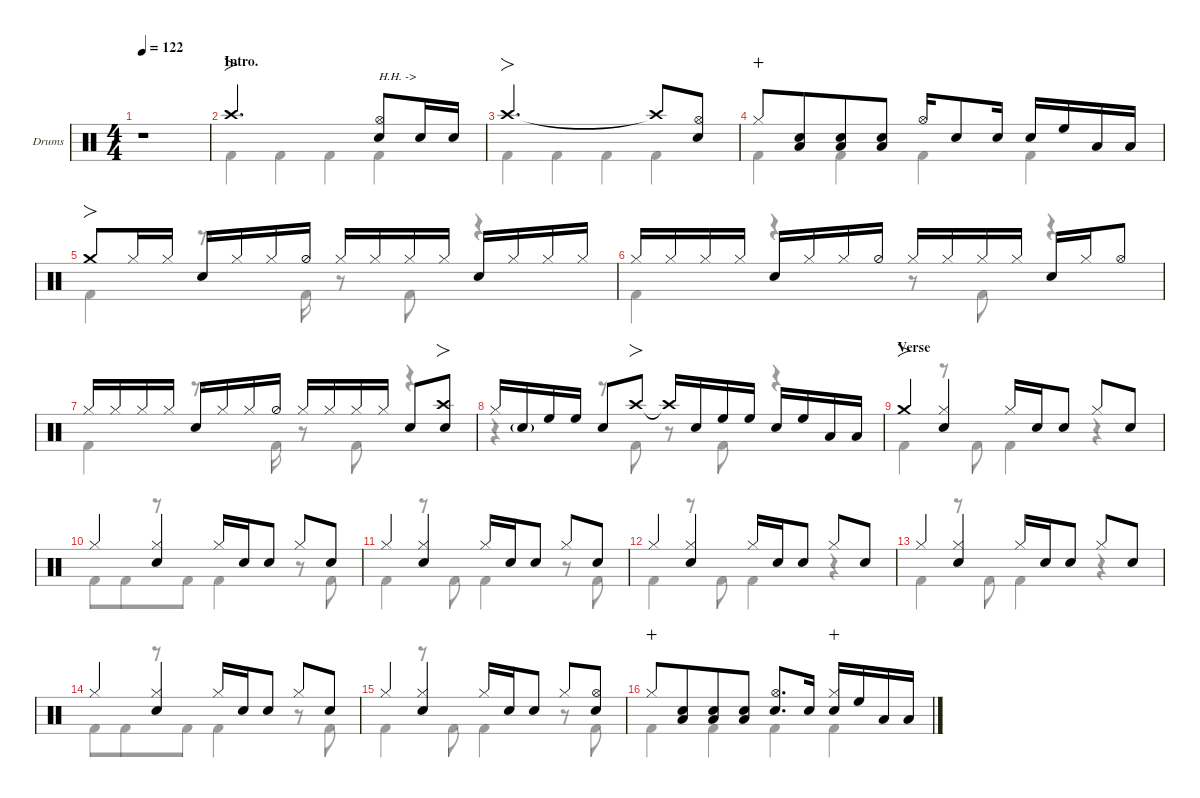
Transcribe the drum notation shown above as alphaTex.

\defaultSystemsLayout 4
\hideDynamics
\bracketExtendMode nobrackets
\firstSystemTrackNameOrientation horizontal
\track ("Drums" "Drums") {defaultSystemsLayout 4 instrument percussion}
\staff {score}
\articulation defaults
\voice
\ts (4 4)
\beaming (8 4 4)
\tempo 122
\clef neutral
\ks c
r.1{dy f beam Up} |
\section ("" "Intro.")
\scale
0.348105 "Crash high (hit)".2{fo d beam Up} ("Hi-Hat (open)" "Snare (hit) 2").8{txt "H.H. ->" beam Up} "Snare (hit) 2".16{beam Up} "Snare (hit) 2".16{dy mf beam Up} |
\scale
0.325947 "Crash high (hit)".2{fo d dy f beam Up} "Crash high (hit)"{t}.8{beam Up} ("Snare (hit) 2" "Hi-Hat (open)").8{beam Up} |
\scale
0.325947 "Hi-Hat (closed)".8{dy mp wahc beam Up} ("Snare (hit) 2" "Low Tom (hit)").8{dy f beam Up} ("Low Tom (hit)" "Snare (hit) 2").8{beam Up} ("Snare (hit) 2" "Low Tom (hit)").8{beam Up} "Hi-Hat (open)".16{beam Up} "Snare (hit) 2".8{beam Up} "Snare (hit) 2".16{dy mf beam Up beam split} "Snare (hit) 2".16{dy f beam Up} "High Floor Tom (hit)".16{beam Up} "Low Tom (hit)".16{beam Up} "Low Tom (hit)".16{beam Up} |
\scale
0.266618 "Crash medium (hit)".8{fo beam Up} "Hi-Hat (closed)".16{beam Up} "Hi-Hat (closed)".16{dy mf beam Up beam split} "Snare (hit) 2".16{dy f beam Up} "Hi-Hat (closed)".16{dy mf beam Up} "Hi-Hat (closed)".16{dy f beam Up} "Hi-Hat (half)".16{beam Up} "Hi-Hat (closed)".16{beam Up} "Hi-Hat (closed)".16{dy mf beam Up} "Hi-Hat (closed)".16{dy f beam Up} "Hi-Hat (closed)".16{dy mf beam Up beam split} "Snare (hit) 2".16{dy f beam Up} "Hi-Hat (closed)".16{dy mf beam Up} "Hi-Hat (closed)".16{dy f beam Up} "Hi-Hat (closed)".16{dy mf beam Up} |
\scale
0.24446 "Hi-Hat (closed)".16{dy f beam Up} "Hi-Hat (closed)".16{dy mf beam Up} "Hi-Hat (closed)".16{dy f beam Up} "Hi-Hat (closed)".16{dy mf beam Up beam split} "Snare (hit) 2".16{dy f beam Up} "Hi-Hat (closed)".16{dy mf beam Up} "Hi-Hat (closed)".16{dy f beam Up} "Hi-Hat (half)".16{beam Up} "Hi-Hat (closed)".16{beam Up} "Hi-Hat (closed)".16{dy mf beam Up} "Hi-Hat (closed)".16{dy f beam Up} "Hi-Hat (closed)".16{dy mf beam Up beam split} "Snare (hit) 2".16{dy f beam Up} "Hi-Hat (closed)".16{dy mf beam Up} "Hi-Hat (open)".8{dy f beam Up} |
\scale
0.24446 "Hi-Hat (closed)".16{dy mf beam Up} "Hi-Hat (closed)".16{beam Up} "Hi-Hat (closed)".16{dy f beam Up} "Hi-Hat (closed)".16{dy mf beam Up beam split} "Snare (hit) 2".16{dy f beam Up} "Hi-Hat (closed)".16{dy mf beam Up} "Hi-Hat (closed)".16{dy f beam Up} "Hi-Hat (half)".16{beam Up} "Hi-Hat (closed)".16{beam Up} "Hi-Hat (closed)".16{dy mf beam Up} "Hi-Hat (closed)".16{dy f beam Up} "Hi-Hat (closed)".16{dy mf beam Up beam split} "Snare (hit) 2".8{dy f beam Up} ("Snare (hit) 2" "Crash high (hit)").8{fo beam Up} |
\scale
0.244461 "Hi-Hat (closed)".16{beam Up} "Snare (hit) 2"{g}.16{dy mf beam Up} "High Floor Tom (hit)".16{dy f beam Up} "High Floor Tom (hit)".16{beam Up beam split} "Snare (hit) 2".8{beam Up} "Crash high (hit)".8{fo beam Up} "Crash high (hit)"{t}.16{beam Up} "Snare (hit) 2".16{beam Up} "High Floor Tom (hit)".16{beam Up} "High Floor Tom (hit)".16{beam Up beam split} "Snare (hit) 2".16{beam Up} "High Floor Tom (hit)".16{beam Up} "Low Tom (hit)".16{beam Up} "Low Tom (hit)".16{beam Up} |
\section ("" "Verse")
\scale
0.266618 "Crash medium (hit)".4{fo beam Up} ("Hi-Hat (closed)" "Snare (hit) 2").4{beam Up} "Hi-Hat (closed)".16{beam Up} "Snare (hit) 2".16{dy mf beam Up} "Snare (hit) 2".8{dy f beam Up beam split} "Hi-Hat (closed)".8{beam Up} "Snare (hit) 2".8{beam Up} |
\scale
0.24446 "Hi-Hat (closed)".4{beam Up} ("Snare (hit) 2" "Hi-Hat (closed)").4{beam Up} "Hi-Hat (closed)".16{beam Up} "Snare (hit) 2".16{dy mf beam Up} "Snare (hit) 2".8{dy f beam Up beam split} "Hi-Hat (closed)".8{beam Up} "Snare (hit) 2".8{beam Up} |
\scale
0.24446 "Hi-Hat (closed)".4{beam Up} ("Snare (hit) 2" "Hi-Hat (closed)").4{beam Up} "Hi-Hat (closed)".16{beam Up} "Snare (hit) 2".16{dy mf beam Up} "Snare (hit) 2".8{dy f beam Up beam split} "Hi-Hat (closed)".8{beam Up} "Snare (hit) 2".8{beam Up} |
\scale
0.244461 "Hi-Hat (closed)".4{beam Up} ("Snare (hit) 2" "Hi-Hat (closed)").4{beam Up} "Hi-Hat (closed)".16{beam Up} "Snare (hit) 2".16{dy mf beam Up} "Snare (hit) 2".8{dy f beam Up beam split} "Hi-Hat (closed)".8{beam Up} "Snare (hit) 2".8{beam Up} |
\scale
0.266618 "Hi-Hat (closed)".4{beam Up} ("Snare (hit) 2" "Hi-Hat (closed)").4{beam Up} "Hi-Hat (closed)".16{beam Up} "Snare (hit) 2".16{dy mf beam Up} "Snare (hit) 2".8{dy f beam Up beam split} "Hi-Hat (closed)".8{beam Up} "Snare (hit) 2".8{beam Up} |
\scale
0.244461 "Hi-Hat (closed)".4{beam Up} ("Snare (hit) 2" "Hi-Hat (closed)").4{beam Up} "Hi-Hat (closed)".16{beam Up} "Snare (hit) 2".16{dy mf beam Up} "Snare (hit) 2".8{dy f beam Up beam split} "Hi-Hat (closed)".8{beam Up} "Snare (hit) 2".8{beam Up} |
\scale
0.24446 "Hi-Hat (closed)".4{beam Up} ("Snare (hit) 2" "Hi-Hat (closed)").4{beam Up} "Hi-Hat (closed)".16{beam Up} "Snare (hit) 2".16{dy mf beam Up} "Snare (hit) 2".8{dy f beam Up beam split} "Hi-Hat (closed)".8{beam Up} ("Snare (hit) 2" "Hi-Hat (open)").8{beam Up} |
\scale
0.244461 "Hi-Hat (closed)".8{dy mp wahc beam Up} ("Snare (hit) 2" "Low Tom (hit)").8{dy f beam Up} ("Snare (hit) 2" "Low Tom (hit)").8{beam Up} ("Snare (hit) 2" "Low Tom (hit)").8{beam Up} ("Snare (hit) 2" "Hi-Hat (open)").8{d beam Up} "Snare (hit) 2".16{beam Up beam split} ("Snare (hit) 2" "Hi-Hat (closed)").16{wahc beam Up} "High Floor Tom (hit)".16{beam Up} "Low Tom (hit)".16{beam Up} "Low Tom (hit)".16{beam Up}
\voice
\clef neutral
\ottava regular
\simile none
\ks c
r.1{dy f beam Down} |
\scale
0.348105 "Kick (hit) 2".4{beam Down} "Kick (hit) 2".4{beam Down} "Kick (hit) 2".4{beam Down} "Kick (hit) 2".4{txt "H.H. ->" beam Down} |
\scale
0.325947 "Kick (hit) 2".4{beam Down} "Kick (hit) 2".4{beam Down} "Kick (hit) 2".4{beam Down} "Kick (hit) 2".4{beam Down} |
\scale
0.325947 "Kick (hit) 2".4{beam Down} "Kick (hit) 2".4{beam Down} "Kick (hit) 2".4{beam Down} "Kick (hit) 2".4{beam Down} |
\scale
0.266618 "Kick (hit) 2".4{beam Down} r.8{d beam Down} "Kick (hit) 2".16{beam Down} r.8{beam Down} "Kick (hit) 2".8{beam Down} r.4{beam Down} |
\scale
0.24446 "Kick (hit) 2".4{beam Down} r.4{beam Down} r.8{beam Down} "Kick (hit) 2".8{beam Down} r.4{beam Down} |
\scale
0.24446 "Kick (hit) 2".4{beam Down} r.8{d beam Down} "Kick (hit) 2".16{beam Down} r.8{beam Down} "Kick (hit) 2".8{beam Down} r.4{beam Down} |
\scale
0.244461 r.4{beam Down} r.8{beam Down} "Kick (hit) 2".8{beam Down} r.8{beam Down} "Kick (hit) 2".8{beam Down} r.4{beam Down} |
\scale
0.266618 "Kick (hit) 2".4{beam Down} r.8{beam Down} "Kick (hit) 2".8{beam Down} "Kick (hit) 2".4{beam Down} r.4{beam Down} |
\scale
0.24446 "Kick (hit) 2".8{beam Down} "Kick (hit) 2".8{beam Down} r.8{beam Down} "Kick (hit) 2".8{beam Down} "Kick (hit) 2".4{beam Down} r.8{beam Down} "Kick (hit) 2".8{beam Down} |
\scale
0.24446 "Kick (hit) 2".4{beam Down} r.8{beam Down} "Kick (hit) 2".8{beam Down} "Kick (hit) 2".4{beam Down} r.8{beam Down} "Kick (hit) 2".8{beam Down} |
\scale
0.244461 "Kick (hit) 2".4{beam Down} r.8{beam Down} "Kick (hit) 2".8{beam Down} "Kick (hit) 2".4{beam Down} r.4{beam Down} |
\scale
0.266618 "Kick (hit) 2".4{beam Down} r.8{beam Down} "Kick (hit) 2".8{beam Down} "Kick (hit) 2".4{beam Down} r.4{beam Down} |
\scale
0.244461 "Kick (hit) 2".8{beam Down} "Kick (hit) 2".8{beam Down} r.8{beam Down} "Kick (hit) 2".8{beam Down} "Kick (hit) 2".4{beam Down} r.8{beam Down} "Kick (hit) 2".8{beam Down} |
\scale
0.24446 "Kick (hit) 2".4{beam Down} r.8{beam Down} "Kick (hit) 2".8{beam Down} "Kick (hit) 2".4{beam Down} r.8{beam Down} "Kick (hit) 2".8{beam Down} |
\scale
0.244461 "Kick (hit) 2".4{beam Down} "Kick (hit) 2".4{beam Down} "Kick (hit) 2".4{beam Down} "Kick (hit) 2".4{beam Down}
